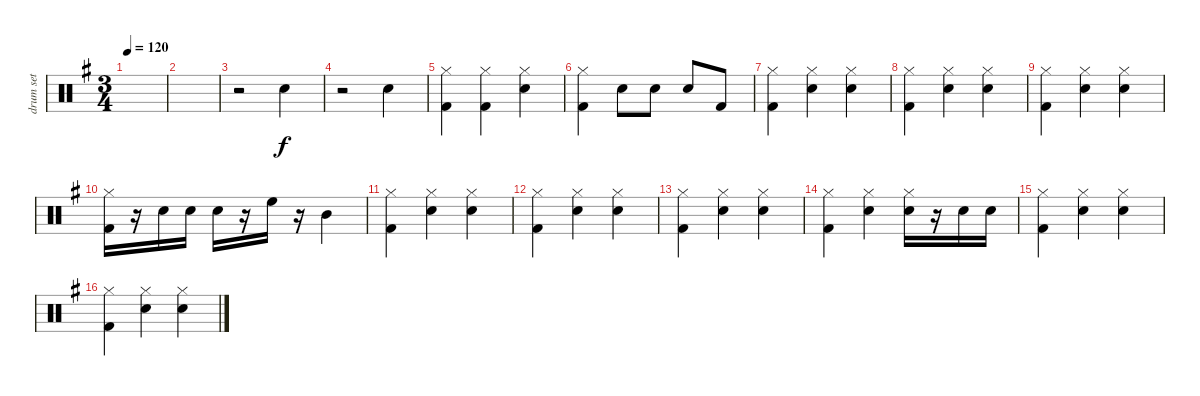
\track ("drum set" "drum set") {instrument percussion}
\staff {score}
\articulation defaults
\ts (3 4)
\tempo 120
\clef neutral
\ks g
|
|
r.2 "Snare (hit) 2".4 |
r.2 "Snare (hit) 2".4 |
("Hi-Hat (closed)" "Kick (hit) 2").4 ("Hi-Hat (closed)" "Kick (hit) 2").4 ("Hi-Hat (closed)" "Snare (hit) 2").4 |
("Hi-Hat (closed)" "Kick (hit) 2").4 "Snare (hit) 2".8 "Snare (hit) 2".8 "Snare (hit) 2".8 "Kick (hit) 2".8 |
("Hi-Hat (closed)" "Kick (hit) 2").4 ("Hi-Hat (closed)" "Snare (hit) 2").4 ("Hi-Hat (closed)" "Snare (hit) 2").4 |
("Hi-Hat (closed)" "Kick (hit) 2").4 ("Hi-Hat (closed)" "Snare (hit) 2").4 ("Hi-Hat (closed)" "Snare (hit) 2").4 |
("Hi-Hat (closed)" "Kick (hit) 2").4 ("Hi-Hat (closed)" "Snare (hit) 2").4 ("Hi-Hat (closed)" "Snare (hit) 2").4 |
("Hi-Hat (closed)" "Kick (hit) 2").16 r.16 "Snare (hit) 2".16 "Snare (hit) 2".16 "Snare (hit) 2".16 r.16 "High Floor Tom (hit)".16 r.16 "Mid Tom (hit)".4 |
("Hi-Hat (closed)" "Kick (hit) 2").4 ("Hi-Hat (closed)" "Snare (hit) 2").4 ("Hi-Hat (closed)" "Snare (hit) 2").4 |
("Hi-Hat (closed)" "Kick (hit) 2").4 ("Hi-Hat (closed)" "Snare (hit) 2").4 ("Hi-Hat (closed)" "Snare (hit) 2").4 |
("Hi-Hat (closed)" "Kick (hit) 2").4 ("Hi-Hat (closed)" "Snare (hit) 2").4 ("Hi-Hat (closed)" "Snare (hit) 2").4 |
("Hi-Hat (closed)" "Kick (hit) 2").4 ("Hi-Hat (closed)" "Snare (hit) 2").4 ("Hi-Hat (closed)" "Snare (hit) 2").16 r.16 "Snare (hit) 2".16 "Snare (hit) 2".16 |
("Hi-Hat (closed)" "Kick (hit) 2").4 ("Hi-Hat (closed)" "Snare (hit) 2").4 ("Hi-Hat (closed)" "Snare (hit) 2").4 |
("Hi-Hat (closed)" "Kick (hit) 2").4 ("Hi-Hat (closed)" "Snare (hit) 2").4 ("Hi-Hat (closed)" "Snare (hit) 2").4
